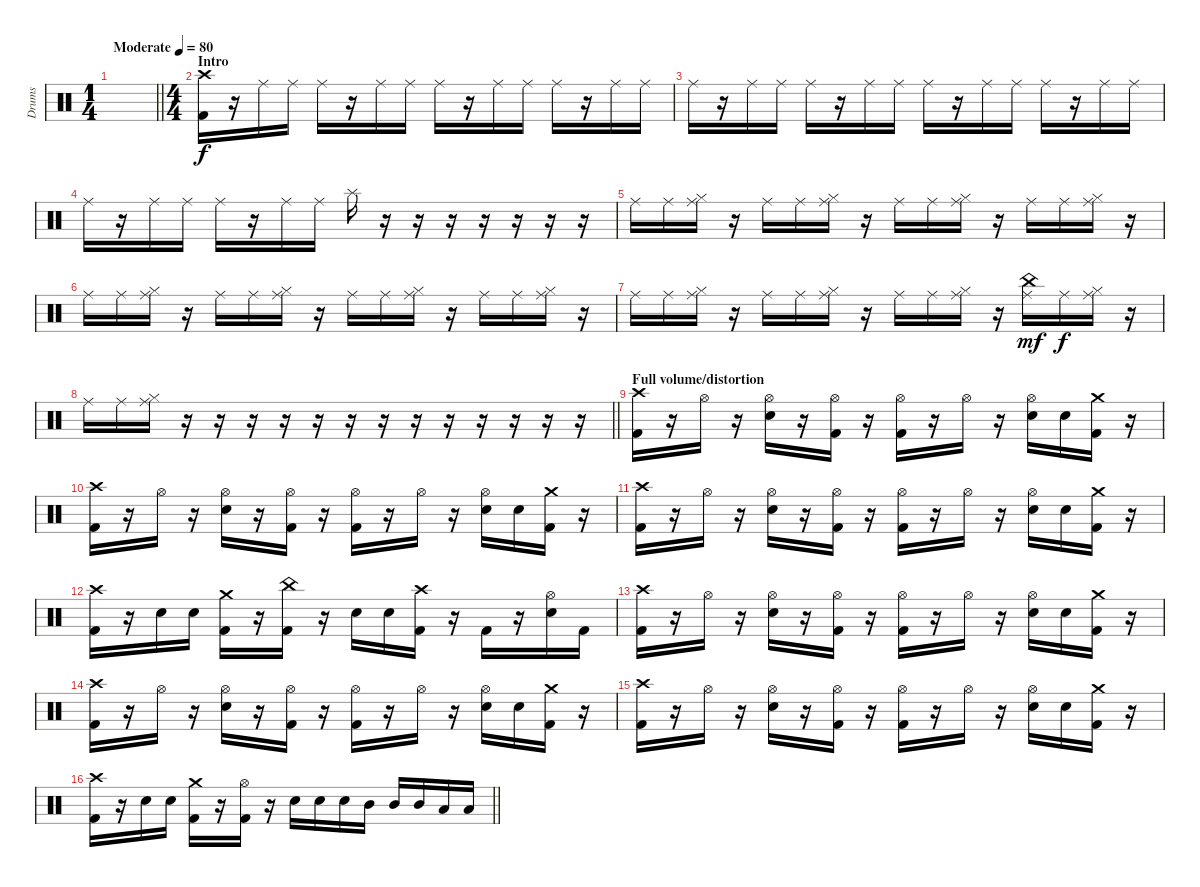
\track ("Drums" "Drums") {instrument percussion}
\staff {score}
\articulation defaults
\ts (1 4)
\tempo (80 "Moderate")
\clef neutral
\barLineRight lightlight
\ks c
|
\ts (4 4)
\section ("" "Intro")
("Crash high (hit)" "Kick (hit) 2").16{volume 10} r.16 "Ride (middle)".16 "Ride (middle)".16 "Ride (middle)".16 r.16 "Ride (middle)".16 "Ride (middle)".16 "Ride (middle)".16 r.16 "Ride (middle)".16 "Ride (middle)".16 "Ride (middle)".16 r.16 "Ride (middle)".16 "Ride (middle)".16 |
"Ride (middle)".16 r.16 "Ride (middle)".16 "Ride (middle)".16 "Ride (middle)".16 r.16 "Ride (middle)".16 "Ride (middle)".16 "Ride (middle)".16 r.16 "Ride (middle)".16 "Ride (middle)".16 "Ride (middle)".16 r.16 "Ride (middle)".16 "Ride (middle)".16 |
"Ride (middle)".16 r.16 "Ride (middle)".16 "Ride (middle)".16 "Ride (middle)".16 r.16 "Ride (middle)".16 "Ride (middle)".16 "Splash (hit)".16 r.16 r.16 r.16 r.16 r.16 r.16 r.16 |
"Ride (middle)".16 "Ride (middle)".16 ("Ride (middle)" "Hi-Hat (closed)").16 r.16 "Ride (middle)".16 "Ride (middle)".16 ("Ride (middle)" "Hi-Hat (closed)").16 r.16 "Ride (middle)".16 "Ride (middle)".16 ("Ride (middle)" "Hi-Hat (closed)").16 r.16 "Ride (middle)".16 "Ride (middle)".16 ("Ride (middle)" "Hi-Hat (closed)").16 r.16 |
"Ride (middle)".16 "Ride (middle)".16 ("Ride (middle)" "Hi-Hat (closed)").16 r.16 "Ride (middle)".16 "Ride (middle)".16 ("Ride (middle)" "Hi-Hat (closed)").16 r.16 "Ride (middle)".16 "Ride (middle)".16 ("Ride (middle)" "Hi-Hat (closed)").16 r.16 "Ride (middle)".16 "Ride (middle)".16 ("Ride (middle)" "Hi-Hat (closed)").16 r.16 |
"Ride (middle)".16 "Ride (middle)".16 ("Ride (middle)" "Hi-Hat (closed)").16 r.16 "Ride (middle)".16 "Ride (middle)".16 ("Ride (middle)" "Hi-Hat (closed)").16 r.16 "Ride (middle)".16 "Ride (middle)".16 ("Ride (middle)" "Hi-Hat (closed)").16 r.16 ("Ride (middle)" "China (hit)").16{dy mf} "Ride (middle)".16{dy f} ("Ride (middle)" "Hi-Hat (closed)").16 r.16 |
\barLineRight lightlight "Ride (middle)".16 "Ride (middle)".16
("Ride (middle)" "Hi-Hat (closed)").16 r.16 r.16 r.16 r.16 r.16 r.16 r.16 r.16 r.16 r.16 r.16 r.16 r.16 |
\section ("" "Full volume/distortion")
("Crash high (hit)" "Kick (hit) 2").16{volume 13} r.16 "Hi-Hat (open)".16 r.16 ("Hi-Hat (open)" "Electric Snare (hit)").16 r.16 ("Hi-Hat (open)" "Kick (hit) 2").16 r.16 ("Hi-Hat (open)" "Kick (hit) 2").16 r.16 "Hi-Hat (open)".16 r.16 ("Hi-Hat (open)" "Electric Snare (hit)").16 "Electric Snare (hit)".16 ("Crash medium (hit)" "Kick (hit) 2").16 r.16 |
("Crash high (hit)" "Kick (hit) 2").16{volume 13} r.16 "Hi-Hat (open)".16 r.16 ("Hi-Hat (open)" "Electric Snare (hit)").16 r.16 ("Hi-Hat (open)" "Kick (hit) 2").16 r.16 ("Hi-Hat (open)" "Kick (hit) 2").16 r.16 "Hi-Hat (open)".16 r.16 ("Hi-Hat (open)" "Electric Snare (hit)").16 "Electric Snare (hit)".16 ("Crash medium (hit)" "Kick (hit) 2").16 r.16 |
("Crash high (hit)" "Kick (hit) 2").16{volume 13} r.16 "Hi-Hat (open)".16 r.16 ("Hi-Hat (open)" "Electric Snare (hit)").16 r.16 ("Hi-Hat (open)" "Kick (hit) 2").16 r.16 ("Hi-Hat (open)" "Kick (hit) 2").16 r.16 "Hi-Hat (open)".16 r.16 ("Hi-Hat (open)" "Electric Snare (hit)").16 "Electric Snare (hit)".16 ("Crash medium (hit)" "Kick (hit) 2").16 r.16 |
("Crash high (hit)" "Kick (hit) 2").16 r.16 "Electric Snare (hit)".16 "Electric Snare (hit)".16 ("Crash medium (hit)" "Kick (hit) 2").16 r.16 ("China (hit)" "Kick (hit) 2").16 r.16 "Electric Snare (hit)".16 "Electric Snare (hit)".16 ("Crash high (hit)" "Kick (hit) 2").16 r.16 "Kick (hit) 2".16 r.16 ("Hi-Hat (open)" "Electric Snare (hit)").16 "Kick (hit) 2".16 |
("Crash high (hit)" "Kick (hit) 2").16{volume 13} r.16 "Hi-Hat (open)".16 r.16 ("Hi-Hat (open)" "Electric Snare (hit)").16 r.16 ("Hi-Hat (open)" "Kick (hit) 2").16 r.16 ("Hi-Hat (open)" "Kick (hit) 2").16 r.16 "Hi-Hat (open)".16 r.16 ("Hi-Hat (open)" "Electric Snare (hit)").16 "Electric Snare (hit)".16 ("Crash medium (hit)" "Kick (hit) 2").16 r.16 |
("Crash high (hit)" "Kick (hit) 2").16{volume 13} r.16 "Hi-Hat (open)".16 r.16 ("Hi-Hat (open)" "Electric Snare (hit)").16 r.16 ("Hi-Hat (open)" "Kick (hit) 2").16 r.16 ("Hi-Hat (open)" "Kick (hit) 2").16 r.16 "Hi-Hat (open)".16 r.16 ("Hi-Hat (open)" "Electric Snare (hit)").16 "Electric Snare (hit)".16 ("Crash medium (hit)" "Kick (hit) 2").16 r.16 |
("Crash high (hit)" "Kick (hit) 2").16{volume 13} r.16 "Hi-Hat (open)".16 r.16 ("Hi-Hat (open)" "Electric Snare (hit)").16 r.16 ("Hi-Hat (open)" "Kick (hit) 2").16 r.16 ("Hi-Hat (open)" "Kick (hit) 2").16 r.16 "Hi-Hat (open)".16 r.16 ("Hi-Hat (open)" "Electric Snare (hit)").16 "Electric Snare (hit)".16 ("Crash medium (hit)" "Kick (hit) 2").16 r.16 |
\barLineRight lightlight
("Crash high (hit)" "Kick (hit) 2").16 r.16 "Electric Snare (hit)".16 "Electric Snare (hit)".16 ("Crash medium (hit)" "Kick (hit) 2").16 r.16 ("Hi-Hat (open)" "Kick (hit) 2").16 r.16 "Electric Snare (hit)".16 "Electric Snare (hit)".16 "Electric Snare (hit)".16 "Mid Tom (hit)".16 "Mid Tom (hit)".16 "Mid Tom (hit)".16 "Low Tom (hit)".16 "Low Tom (hit)".16
